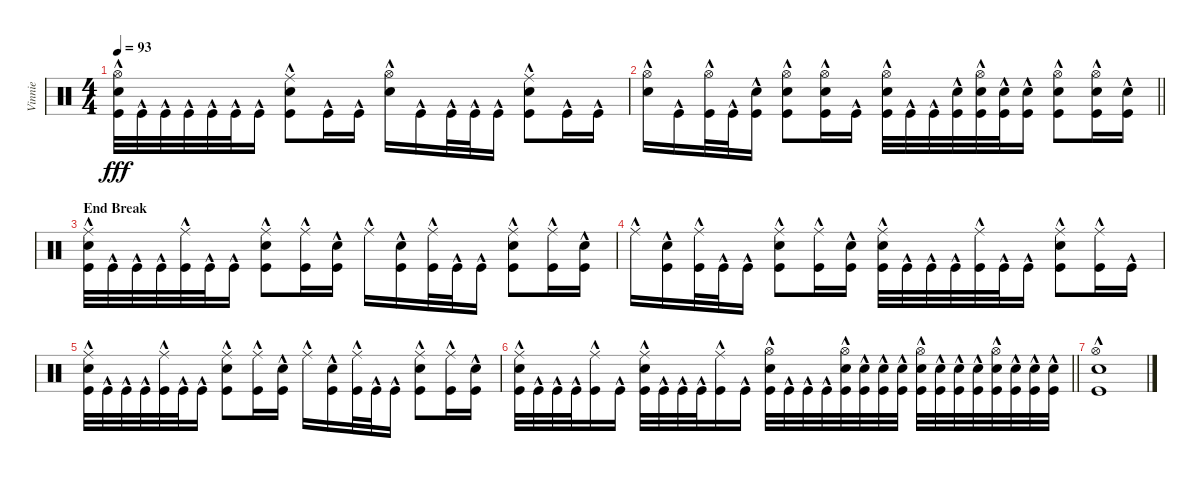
\track ("Vinnie" "Vinnie") {instrument percussion}
\staff {score}
\articulation defaults
\ts (4 4)
\tempo 93
\clef neutral
\ks c
("Hi-Hat (open)"{hac} "Electric Snare (hit)" "Kick (hit)"{hac}).32{dy fff} "Kick (hit)"{hac}.32 "Kick (hit)"{hac}.32 "Kick (hit)"{hac}.32 "Kick (hit)"{hac}.32 "Kick (hit)"{hac}.32 "Kick (hit)"{hac}.16 ("Ride (middle)"{hac} "Electric Snare (hit)" "Kick (hit)"{hac}).8 "Kick (hit)"{hac}.16 "Kick (hit)"{hac}.16 ("Hi-Hat (open)"{hac} "Electric Snare (hit)").16 "Kick (hit)"{hac}.16 "Kick (hit)"{hac}.32 "Kick (hit)"{hac}.32 "Kick (hit)"{hac}.16 ("Ride (middle)"{hac} "Electric Snare (hit)" "Kick (hit)"{hac}).8 "Kick (hit)"{hac}.16 "Kick (hit)"{hac}.16 |
\barLineRight lightlight
("Hi-Hat (open)"{hac} "Electric Snare (hit)").16 "Kick (hit)"{hac}.16 ("Hi-Hat (open)" "Kick (hit)"{hac}).32 "Kick (hit)"{hac}.32 ("Electric Snare (hit)" "Kick (hit)"{hac}).16 ("Hi-Hat (open)"{hac} "Electric Snare (hit)" "Kick (hit)"{hac}).8 ("Hi-Hat (open)" "Electric Snare (hit)" "Kick (hit)"{hac}).16 "Kick (hit)"{hac}.16 ("Hi-Hat (open)"{hac} "Electric Snare (hit)" "Kick (hit)"{hac}).32 "Kick (hit)"{hac}.32 "Kick (hit)"{hac}.32 ("Electric Snare (hit)" "Kick (hit)"{hac}).32 ("Hi-Hat (open)" "Electric Snare (hit)" "Kick (hit)"{hac}).32 ("Electric Snare (hit)" "Kick (hit)"{hac}).32 ("Electric Snare (hit)" "Kick (hit)"{hac}).16 ("Hi-Hat (open)"{hac} "Electric Snare (hit)" "Kick (hit)"{hac}).8 ("Hi-Hat (open)"{hac} "Electric Snare (hit)" "Kick (hit)"{hac}).16 ("Electric Snare (hit)" "Kick (hit)"{hac}).16 |
\section ("" "End Break")
("Ride (middle)"{hac} "Electric Snare (hit)" "Kick (hit)"{hac}).32 "Kick (hit)"{hac}.32 "Kick (hit)"{hac}.32 "Kick (hit)"{hac}.32 ("Ride (middle)"{hac} "Kick (hit)"{hac}).32 "Kick (hit)"{hac}.32 "Kick (hit)"{hac}.16 ("Ride (middle)"{hac} "Electric Snare (hit)" "Kick (hit)"{hac}).8 ("Ride (middle)"{hac} "Kick (hit)"{hac}).16 ("Electric Snare (hit)" "Kick (hit)"{hac}).16 "Ride (middle)"{hac}.16 ("Electric Snare (hit)" "Kick (hit)"{hac}).16 ("Ride (middle)"{hac} "Kick (hit)"{hac}).32 "Kick (hit)"{hac}.32 "Kick (hit)"{hac}.16 ("Ride (middle)"{hac} "Electric Snare (hit)" "Kick (hit)"{hac}).8 ("Ride (middle)"{hac} "Kick (hit)"{hac}).16 ("Electric Snare (hit)" "Kick (hit)"{hac}).16 |
"Ride (middle)"{hac}.16 ("Electric Snare (hit)" "Kick (hit)"{hac}).16 ("Ride (middle)"{hac} "Kick (hit)"{hac}).32 "Kick (hit)"{hac}.32 "Kick (hit)"{hac}.16 ("Ride (middle)"{hac} "Electric Snare (hit)" "Kick (hit)"{hac}).8 ("Ride (middle)"{hac} "Kick (hit)"{hac}).16 ("Electric Snare (hit)" "Kick (hit)"{hac}).16 ("Ride (middle)"{hac} "Electric Snare (hit)" "Kick (hit)"{hac}).32 "Kick (hit)"{hac}.32 "Kick (hit)"{hac}.32 "Kick (hit)"{hac}.32 ("Ride (middle)"{hac} "Kick (hit)"{hac}).32 "Kick (hit)"{hac}.32 "Kick (hit)"{hac}.16 ("Ride (middle)"{hac} "Electric Snare (hit)" "Kick (hit)"{hac}).8 ("Ride (middle)"{hac} "Kick (hit)"{hac}).16 "Kick (hit)"{hac}.16 |
("Ride (middle)"{hac} "Electric Snare (hit)" "Kick (hit)"{hac}).32 "Kick (hit)"{hac}.32 "Kick (hit)"{hac}.32 "Kick (hit)"{hac}.32 ("Ride (middle)"{hac} "Kick (hit)"{hac}).32 "Kick (hit)"{hac}.32 "Kick (hit)"{hac}.16 ("Ride (middle)"{hac} "Electric Snare (hit)" "Kick (hit)"{hac}).8 ("Ride (middle)"{hac} "Kick (hit)"{hac}).16 ("Electric Snare (hit)" "Kick (hit)"{hac}).16 "Ride (middle)"{hac}.16 ("Electric Snare (hit)" "Kick (hit)"{hac}).16 ("Ride (middle)"{hac} "Kick (hit)"{hac}).32 "Kick (hit)"{hac}.32 "Kick (hit)"{hac}.16 ("Ride (middle)"{hac} "Electric Snare (hit)" "Kick (hit)"{hac}).8 ("Ride (middle)"{hac} "Kick (hit)"{hac}).16 ("Electric Snare (hit)" "Kick (hit)"{hac}).16 |
\barLineRight lightlight
("Ride (middle)" "Electric Snare (hit)" "Kick (hit)"{hac}).32 "Kick (hit)"{hac}.32 "Kick (hit)"{hac}.32 "Kick (hit)"{hac}.32 ("Ride (middle)" "Kick (hit)"{hac}).16 "Kick (hit)"{hac}.16 ("Ride (middle)" "Electric Snare (hit)" "Kick (hit)"{hac}).32 "Kick (hit)"{hac}.32 "Kick (hit)"{hac}.32 "Kick (hit)"{hac}.32 ("Ride (middle)" "Kick (hit)"{hac}).16 "Kick (hit)"{hac}.16 ("Hi-Hat (open)" "Electric Snare (hit)" "Kick (hit)"{hac}).32 "Kick (hit)"{hac}.32 "Kick (hit)"{hac}.32 "Kick (hit)"{hac}.32 ("Hi-Hat (open)" "Electric Snare (hit)" "Kick (hit)"{hac}).32 ("Electric Snare (hit)" "Kick (hit)"{hac}).32 ("Electric Snare (hit)" "Kick (hit)"{hac}).32 ("Electric Snare (hit)" "Kick (hit)"{hac}).32 ("Hi-Hat (open)" "Electric Snare (hit)" "Kick (hit)"{hac}).32 ("Electric Snare (hit)" "Kick (hit)"{hac}).32 ("Electric Snare (hit)" "Kick (hit)"{hac}).32 ("Electric Snare (hit)" "Kick (hit)"{hac}).32 ("Hi-Hat (open)" "Electric Snare (hit)" "Kick (hit)"{hac}).32 ("Electric Snare (hit)" "Kick (hit)"{hac}).32 ("Electric Snare (hit)" "Kick (hit)"{hac}).32 ("Electric Snare (hit)" "Kick (hit)"{hac}).32 |
("Hi-Hat (open)" "Electric Snare (hit)" "Kick (hit)"{hac}).1
